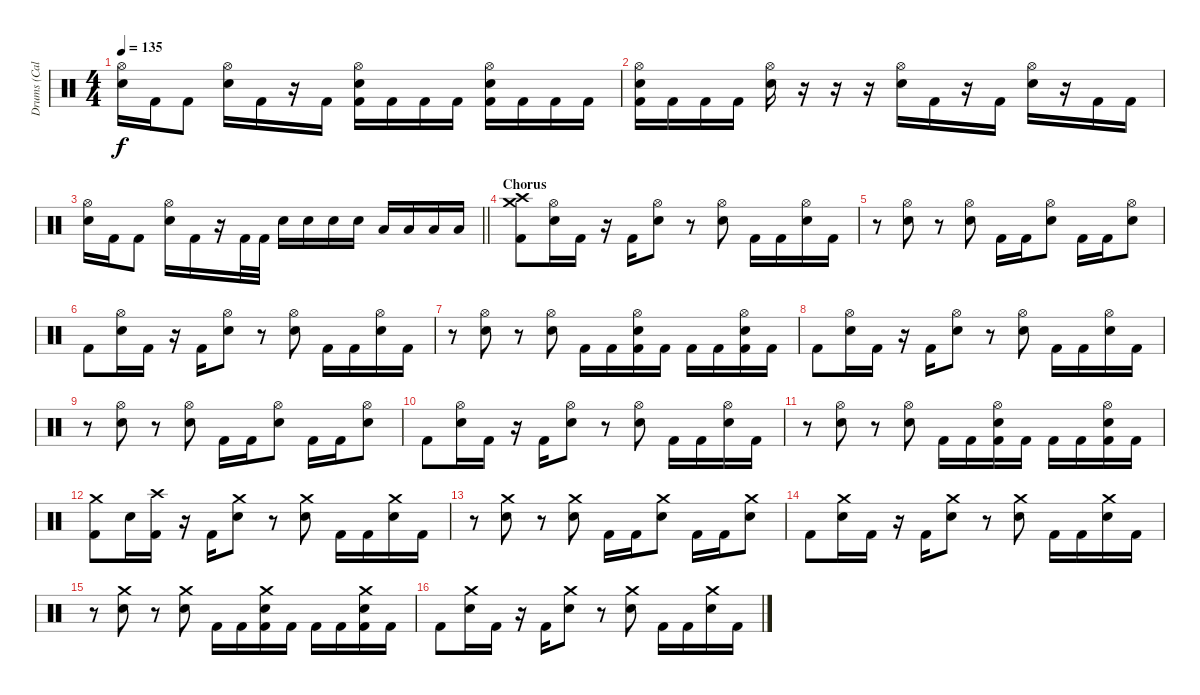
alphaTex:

\track ("Drums (Caleb Burton)" "Drums (Cal") {instrument percussion}
\staff {score}
\articulation defaults
\ts (4 4)
\tempo 135
\clef neutral
\ks c
("Hi-Hat (open)" "Electric Snare (hit)").16{dy f} "Kick (hit) 2".16 "Kick (hit) 2".8 ("Hi-Hat (open)" "Electric Snare (hit)").16 "Kick (hit) 2".16 r.16 "Kick (hit) 2".16 ("Hi-Hat (open)" "Electric Snare (hit)" "Kick (hit) 2").16 "Kick (hit) 2".16 "Kick (hit) 2".16 "Kick (hit) 2".16 ("Hi-Hat (open)" "Electric Snare (hit)" "Kick (hit) 2").16 "Kick (hit) 2".16 "Kick (hit) 2".16 "Kick (hit) 2".16 |
("Hi-Hat (open)" "Electric Snare (hit)" "Kick (hit) 2").16 "Kick (hit) 2".16 "Kick (hit) 2".16 "Kick (hit) 2".16 ("Hi-Hat (open)" "Electric Snare (hit)").16 r.16 r.16 r.16 ("Hi-Hat (open)" "Electric Snare (hit)").16 "Kick (hit) 2".16 r.16 "Kick (hit) 2".16 ("Hi-Hat (open)" "Electric Snare (hit)").16 r.16 "Kick (hit) 2".16 "Kick (hit) 2".16 |
\barLineRight lightlight
("Hi-Hat (open)" "Electric Snare (hit)").16 "Kick (hit) 2".16 "Kick (hit) 2".8 ("Hi-Hat (open)" "Electric Snare (hit)").16 "Kick (hit) 2".16 r.16 "Kick (hit) 2".32 "Kick (hit) 2".32 "Electric Snare (hit)".16 "Electric Snare (hit)".16 "Electric Snare (hit)".16 "Electric Snare (hit)".16 "Low Tom (hit)".16 "Low Tom (hit)".16 "Low Tom (hit)".16 "Low Tom (hit)".16 |
\section ("" "Chorus")
("Crash high (hit)" "Crash medium (hit)" "Kick (hit) 2").8 ("Hi-Hat (open)" "Electric Snare (hit)").16 "Kick (hit) 2".16 r.16 "Kick (hit) 2".16 ("Hi-Hat (open)" "Electric Snare (hit)").8 r.8 ("Hi-Hat (open)" "Electric Snare (hit)").8 "Kick (hit) 2".16 "Kick (hit) 2".16 ("Hi-Hat (open)" "Electric Snare (hit)").16 "Kick (hit) 2".16 |
r.8 ("Hi-Hat (open)" "Electric Snare (hit)").8 r.8 ("Hi-Hat (open)" "Electric Snare (hit)").8 "Kick (hit) 2".16 "Kick (hit) 2".16 ("Hi-Hat (open)" "Electric Snare (hit)").8 "Kick (hit) 2".16 "Kick (hit) 2".16 ("Hi-Hat (open)" "Electric Snare (hit)").8 |
"Kick (hit) 2".8 ("Hi-Hat (open)" "Electric Snare (hit)").16 "Kick (hit) 2".16 r.16 "Kick (hit) 2".16 ("Hi-Hat (open)" "Electric Snare (hit)").8 r.8 ("Hi-Hat (open)" "Electric Snare (hit)").8 "Kick (hit) 2".16 "Kick (hit) 2".16 ("Hi-Hat (open)" "Electric Snare (hit)").16 "Kick (hit) 2".16 |
r.8 ("Hi-Hat (open)" "Electric Snare (hit)").8 r.8 ("Hi-Hat (open)" "Electric Snare (hit)").8 "Kick (hit) 2".16 "Kick (hit) 2".16 ("Hi-Hat (open)" "Electric Snare (hit)" "Kick (hit) 2").16 "Kick (hit) 2".16 "Kick (hit) 2".16 "Kick (hit) 2".16 ("Hi-Hat (open)" "Electric Snare (hit)" "Kick (hit) 2").16 "Kick (hit) 2".16 |
"Kick (hit) 2".8 ("Hi-Hat (open)" "Electric Snare (hit)").16 "Kick (hit) 2".16 r.16 "Kick (hit) 2".16 ("Hi-Hat (open)" "Electric Snare (hit)").8 r.8 ("Hi-Hat (open)" "Electric Snare (hit)").8 "Kick (hit) 2".16 "Kick (hit) 2".16 ("Hi-Hat (open)" "Electric Snare (hit)").16 "Kick (hit) 2".16 |
r.8 ("Hi-Hat (open)" "Electric Snare (hit)").8 r.8 ("Hi-Hat (open)" "Electric Snare (hit)").8 "Kick (hit) 2".16 "Kick (hit) 2".16 ("Hi-Hat (open)" "Electric Snare (hit)").8 "Kick (hit) 2".16 "Kick (hit) 2".16 ("Hi-Hat (open)" "Electric Snare (hit)").8 |
"Kick (hit) 2".8 ("Hi-Hat (open)" "Electric Snare (hit)").16 "Kick (hit) 2".16 r.16 "Kick (hit) 2".16 ("Hi-Hat (open)" "Electric Snare (hit)").8 r.8 ("Hi-Hat (open)" "Electric Snare (hit)").8 "Kick (hit) 2".16 "Kick (hit) 2".16 ("Hi-Hat (open)" "Electric Snare (hit)").16 "Kick (hit) 2".16 |
r.8 ("Hi-Hat (open)" "Electric Snare (hit)").8 r.8 ("Hi-Hat (open)" "Electric Snare (hit)").8 "Kick (hit) 2".16 "Kick (hit) 2".16 ("Hi-Hat (open)" "Electric Snare (hit)" "Kick (hit) 2").16 "Kick (hit) 2".16 "Kick (hit) 2".16 "Kick (hit) 2".16 ("Hi-Hat (open)" "Electric Snare (hit)" "Kick (hit) 2").16 "Kick (hit) 2".16 |
("Crash medium (hit)" "Kick (hit) 2").8 "Electric Snare (hit)".16 ("Crash high (hit)" "Kick (hit) 2").16 r.16 "Kick (hit) 2".16 ("Crash medium (hit)" "Electric Snare (hit)").8 r.8 ("Crash medium (hit)" "Electric Snare (hit)").8 "Kick (hit) 2".16 "Kick (hit) 2".16 ("Crash medium (hit)" "Electric Snare (hit)").16 "Kick (hit) 2".16 |
r.8 ("Crash medium (hit)" "Electric Snare (hit)").8 r.8 ("Crash medium (hit)" "Electric Snare (hit)").8 "Kick (hit) 2".16 "Kick (hit) 2".16 ("Crash medium (hit)" "Electric Snare (hit)").8 "Kick (hit) 2".16 "Kick (hit) 2".16 ("Crash medium (hit)" "Electric Snare (hit)").8 |
"Kick (hit) 2".8 ("Crash medium (hit)" "Electric Snare (hit)").16 "Kick (hit) 2".16 r.16 "Kick (hit) 2".16 ("Crash medium (hit)" "Electric Snare (hit)").8 r.8 ("Crash medium (hit)" "Electric Snare (hit)").8 "Kick (hit) 2".16 "Kick (hit) 2".16 ("Crash medium (hit)" "Electric Snare (hit)").16 "Kick (hit) 2".16 |
r.8 ("Crash medium (hit)" "Electric Snare (hit)").8 r.8 ("Crash medium (hit)" "Electric Snare (hit)").8 "Kick (hit) 2".16 "Kick (hit) 2".16 ("Crash medium (hit)" "Electric Snare (hit)" "Kick (hit) 2").16 "Kick (hit) 2".16 "Kick (hit) 2".16 "Kick (hit) 2".16 ("Crash medium (hit)" "Electric Snare (hit)" "Kick (hit) 2").16 "Kick (hit) 2".16 |
"Kick (hit) 2".8 ("Crash medium (hit)" "Electric Snare (hit)").16 "Kick (hit) 2".16 r.16 "Kick (hit) 2".16 ("Crash medium (hit)" "Electric Snare (hit)").8 r.8 ("Crash medium (hit)" "Electric Snare (hit)").8 "Kick (hit) 2".16 "Kick (hit) 2".16 ("Crash medium (hit)" "Electric Snare (hit)").16 "Kick (hit) 2".16
